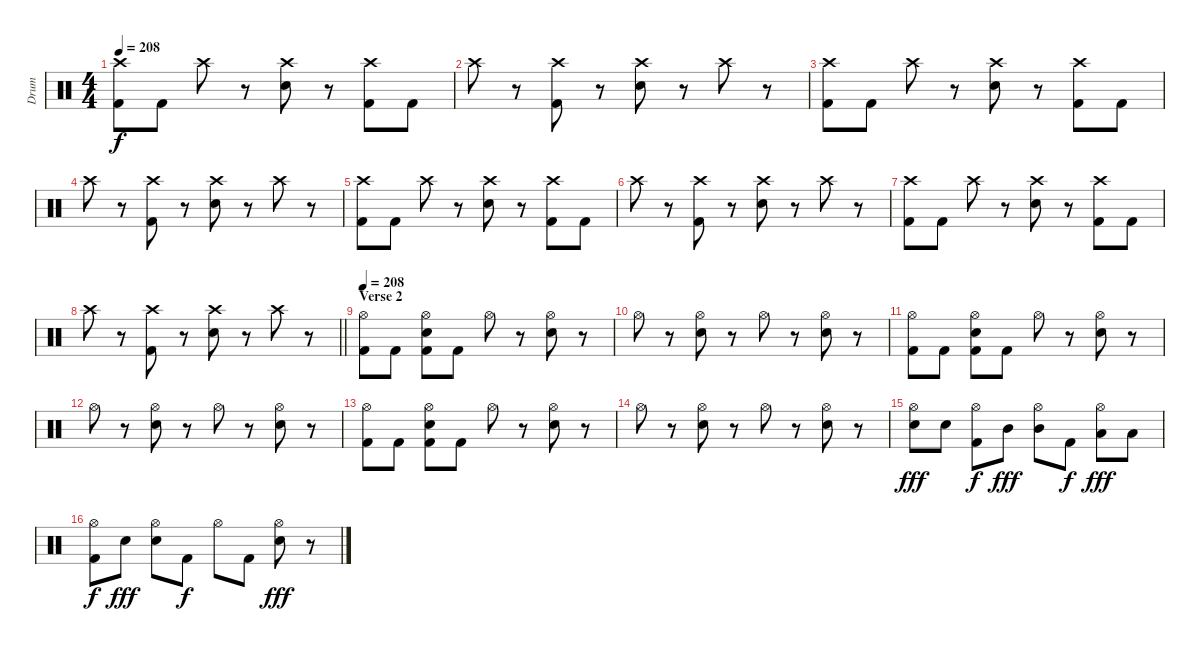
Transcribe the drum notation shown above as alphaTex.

\track ("Drum" "Drum") {instrument percussion}
\staff {score}
\articulation defaults
\ts (4 4)
\tempo 208
\clef neutral
\ks c
("Crash high (hit)" "Kick (hit) 2").8{dy f} "Kick (hit) 2".8 "Crash high (hit)".8 r.8 ("Crash high (hit)" "Electric Snare (hit)").8 r.8 ("Crash high (hit)" "Kick (hit) 2").8 "Kick (hit) 2".8 |
"Crash high (hit)".8 r.8 ("Crash high (hit)" "Kick (hit) 2").8 r.8 ("Crash high (hit)" "Electric Snare (hit)").8 r.8 "Crash high (hit)".8 r.8 |
("Crash high (hit)" "Kick (hit) 2").8 "Kick (hit) 2".8 "Crash high (hit)".8 r.8 ("Crash high (hit)" "Electric Snare (hit)").8 r.8 ("Crash high (hit)" "Kick (hit) 2").8 "Kick (hit) 2".8 |
"Crash high (hit)".8 r.8 ("Crash high (hit)" "Kick (hit) 2").8 r.8 ("Crash high (hit)" "Electric Snare (hit)").8 r.8 "Crash high (hit)".8 r.8 |
("Crash high (hit)" "Kick (hit) 2").8 "Kick (hit) 2".8 "Crash high (hit)".8 r.8 ("Crash high (hit)" "Electric Snare (hit)").8 r.8 ("Crash high (hit)" "Kick (hit) 2").8 "Kick (hit) 2".8 |
"Crash high (hit)".8 r.8 ("Crash high (hit)" "Kick (hit) 2").8 r.8 ("Crash high (hit)" "Electric Snare (hit)").8 r.8 "Crash high (hit)".8 r.8 |
("Crash high (hit)" "Kick (hit) 2").8 "Kick (hit) 2".8 "Crash high (hit)".8 r.8 ("Crash high (hit)" "Electric Snare (hit)").8 r.8 ("Crash high (hit)" "Kick (hit) 2").8 "Kick (hit) 2".8 |
\barLineRight lightlight "Crash high (hit)".8
r.8 ("Crash high (hit)" "Kick (hit) 2").8 r.8 ("Crash high (hit)" "Electric Snare (hit)").8 r.8 "Crash high (hit)".8 r.8 |
\section ("" "Verse 2")
\tempo 208
("Hi-Hat (open)" "Kick (hit) 2").8 "Kick (hit) 2".8 ("Hi-Hat (open)" "Electric Snare (hit)" "Kick (hit) 2").8 "Kick (hit) 2".8 "Hi-Hat (open)".8 r.8 ("Hi-Hat (open)" "Electric Snare (hit)").8 r.8 |
"Hi-Hat (open)".8 r.8 ("Hi-Hat (open)" "Electric Snare (hit)").8 r.8 "Hi-Hat (open)".8 r.8 ("Hi-Hat (open)" "Electric Snare (hit)").8 r.8 |
("Hi-Hat (open)" "Kick (hit) 2").8 "Kick (hit) 2".8 ("Hi-Hat (open)" "Electric Snare (hit)" "Kick (hit) 2").8 "Kick (hit) 2".8 "Hi-Hat (open)".8 r.8 ("Hi-Hat (open)" "Electric Snare (hit)").8 r.8 |
"Hi-Hat (open)".8 r.8 ("Hi-Hat (open)" "Electric Snare (hit)").8 r.8 "Hi-Hat (open)".8 r.8 ("Hi-Hat (open)" "Electric Snare (hit)").8 r.8 |
("Hi-Hat (open)" "Kick (hit) 2").8 "Kick (hit) 2".8 ("Hi-Hat (open)" "Electric Snare (hit)" "Kick (hit) 2").8 "Kick (hit) 2".8 "Hi-Hat (open)".8 r.8 ("Hi-Hat (open)" "Electric Snare (hit)").8 r.8 |
"Hi-Hat (open)".8 r.8 ("Hi-Hat (open)" "Electric Snare (hit)").8 r.8 "Hi-Hat (open)".8 r.8 ("Hi-Hat (open)" "Electric Snare (hit)").8 r.8 |
("Hi-Hat (open)" "Electric Snare (hit)").8{dy fff} "Electric Snare (hit)".8 ("Hi-Hat (open)" "Kick (hit) 2").8{dy f} "Mid Tom (hit)".8{dy fff} ("Hi-Hat (open)" "Mid Tom (hit)").8 "Kick (hit) 2".8{dy f} ("Hi-Hat (open)" "Low Tom (hit)").8{dy fff} "Low Tom (hit)".8 |
("Hi-Hat (open)" "Kick (hit) 2").8{dy f} "Electric Snare (hit)".8{dy fff} ("Hi-Hat (open)" "Electric Snare (hit)").8 "Kick (hit) 2".8{dy f} "Hi-Hat (open)".8 "Kick (hit) 2".8 ("Hi-Hat (open)" "Electric Snare (hit)").8{dy fff} r.8
